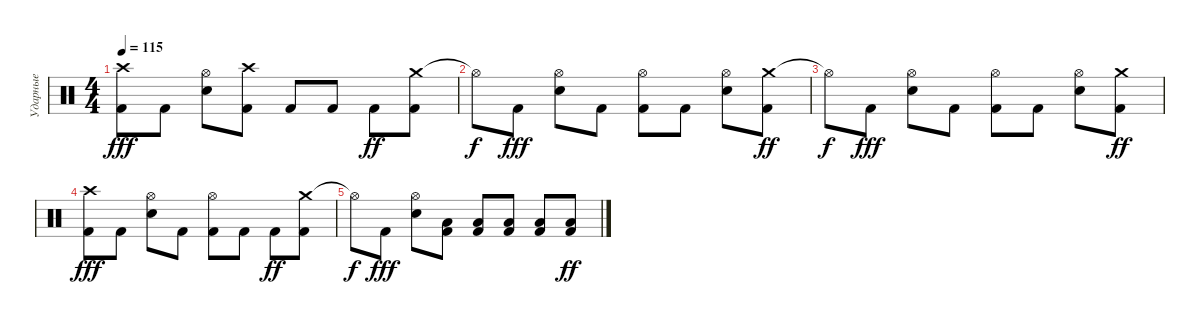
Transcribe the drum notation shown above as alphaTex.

\track ("Ударные" "Ударные") {instrument percussion}
\staff {score}
\articulation defaults
\ts (4 4)
\tempo 115
\clef neutral
\ks c
("Crash high (hit)" "Kick (hit) 2").8{dy fff} "Kick (hit) 2".8 ("Hi-Hat (open)" "Snare (hit) 2").8 ("Crash high (hit)" "Kick (hit) 2").8 "Kick (hit) 2".8 "Kick (hit) 2".8 "Kick (hit) 2".8{dy ff} ("Crash medium (hit)" "Kick (hit) 2").8 |
"Hi-Hat (open)"{t}.8{dy f} "Kick (hit) 2".8{dy fff} ("Hi-Hat (open)" "Snare (hit) 2").8 "Kick (hit) 2".8 ("Hi-Hat (open)" "Kick (hit) 2").8 "Kick (hit) 2".8 ("Hi-Hat (open)" "Snare (hit) 2").8 ("Crash medium (hit)" "Kick (hit) 2").8{dy ff} |
"Hi-Hat (open)"{t}.8{dy f} "Kick (hit) 2".8{dy fff} ("Hi-Hat (open)" "Snare (hit) 2").8 "Kick (hit) 2".8 ("Hi-Hat (open)" "Kick (hit) 2").8 "Kick (hit) 2".8 ("Hi-Hat (open)" "Snare (hit) 2").8 ("Crash medium (hit)" "Kick (hit) 2").8{dy ff} |
("Crash high (hit)" "Kick (hit) 2").8{dy fff} "Kick (hit) 2".8 ("Hi-Hat (open)" "Snare (hit) 2").8 "Kick (hit) 2".8 ("Hi-Hat (open)" "Kick (hit) 2").8 "Kick (hit) 2".8 "Kick (hit) 2".8{dy ff} ("Crash medium (hit)" "Kick (hit) 2").8 |
"Hi-Hat (open)"{t}.8{dy f} "Kick (hit) 2".8{dy fff} ("Hi-Hat (open)" "Snare (hit) 2").8 ("Low Floor Tom (hit)" "Kick (hit) 2").8 ("Low Floor Tom (hit)" "Kick (hit) 2").8 ("Low Floor Tom (hit)" "Kick (hit) 2").8 ("Low Floor Tom (hit)" "Kick (hit) 2").8 ("Low Floor Tom (hit)" "Kick (hit) 2").8{dy ff}
